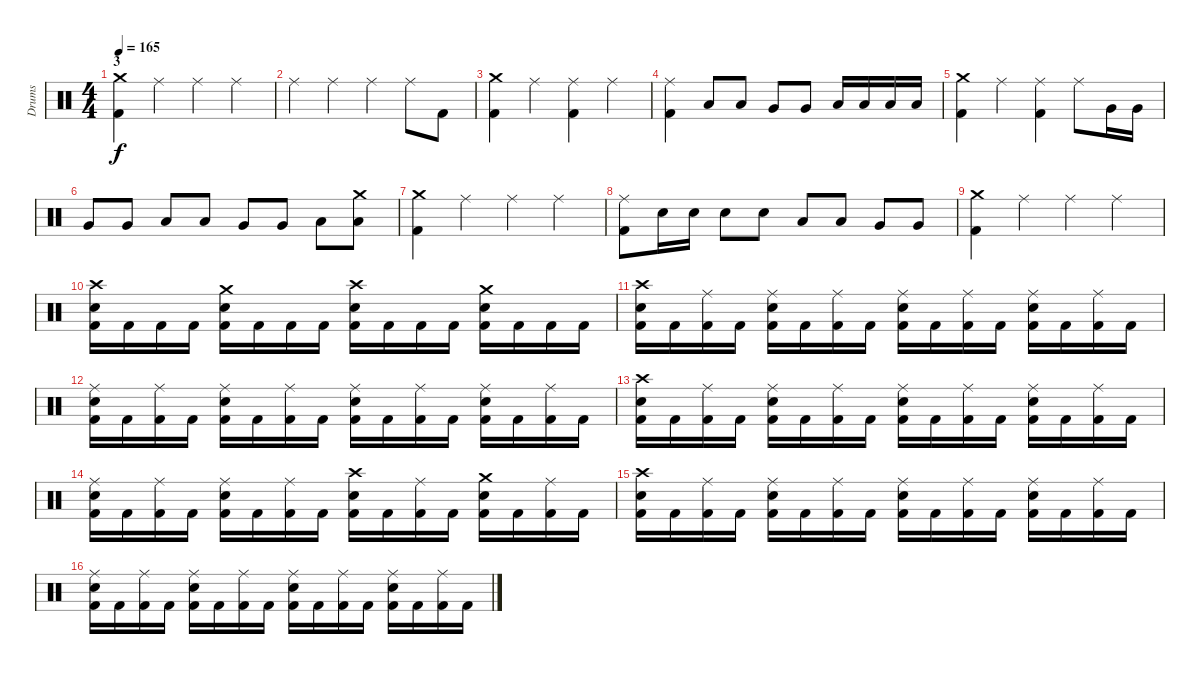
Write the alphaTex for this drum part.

\track ("Drums" "Drums") {instrument percussion}
\staff {score}
\articulation defaults
\ts (4 4)
\section ("" "3")
\tempo 165
\clef neutral
\ks c
("Crash medium (hit)" "Kick (hit) 2").4{dy f} "Ride (middle)".4 "Ride (middle)".4 "Ride (middle)".4 |
"Ride (middle)".4 "Ride (middle)".4 "Ride (middle)".4 "Ride (middle)".8 "Kick (hit) 2".8 |
("Crash medium (hit)" "Kick (hit) 2").4 "Ride (middle)".4 ("Ride (middle)" "Kick (hit) 2").4 "Ride (middle)".4 |
("Ride (middle)" "Kick (hit) 2").4 "Low Tom (hit)".8 "Low Tom (hit)".8 "Very Low Tom (hit)".8 "Very Low Tom (hit)".8 "Low Floor Tom (hit)".16 "Low Floor Tom (hit)".16 "Low Floor Tom (hit)".16 "Low Floor Tom (hit)".16 |
("Crash medium (hit)" "Kick (hit) 2").4 "Ride (middle)".4 ("Ride (middle)" "Kick (hit) 2").4 "Ride (middle)".8 "Very Low Tom (hit)".16 "Very Low Tom (hit)".16 |
"Very Low Tom (hit)".8 "Very Low Tom (hit)".8 "Low Tom (hit)".8 "Low Tom (hit)".8 "Very Low Tom (hit)".8 "Very Low Tom (hit)".8 "Low Floor Tom (hit)".8 ("Crash medium (hit)" "Low Floor Tom (hit)").8 |
("Crash medium (hit)" "Kick (hit) 2").4 "Ride (middle)".4 "Ride (middle)".4 "Ride (middle)".4 |
("Ride (middle)" "Kick (hit) 2").8 "Electric Snare (hit)".16 "Electric Snare (hit)".16 "Electric Snare (hit)".8 "Electric Snare (hit)".8 "Low Tom (hit)".8 "Low Tom (hit)".8 "Very Low Tom (hit)".8 "Very Low Tom (hit)".8 |
("Crash medium (hit)" "Kick (hit) 2").4 "Ride (middle)".4 "Ride (middle)".4 "Ride (middle)".4 |
("Crash high (hit)" "Electric Snare (hit)" "Kick (hit) 2").16 "Kick (hit) 2".16 "Kick (hit) 2".16 "Kick (hit) 2".16 ("Crash medium (hit)" "Electric Snare (hit)" "Kick (hit) 2").16 "Kick (hit) 2".16 "Kick (hit) 2".16 "Kick (hit) 2".16 ("Crash high (hit)" "Electric Snare (hit)" "Kick (hit) 2").16 "Kick (hit) 2".16 "Kick (hit) 2".16 "Kick (hit) 2".16 ("Crash medium (hit)" "Electric Snare (hit)" "Kick (hit) 2").16 "Kick (hit) 2".16 "Kick (hit) 2".16 "Kick (hit) 2".16 |
("Crash high (hit)" "Electric Snare (hit)" "Kick (hit) 2").16 "Kick (hit) 2".16 ("Ride (middle)" "Kick (hit) 2").16 "Kick (hit) 2".16 ("Ride (middle)" "Electric Snare (hit)" "Kick (hit) 2").16 "Kick (hit) 2".16 ("Ride (middle)" "Kick (hit) 2").16 "Kick (hit) 2".16 ("Ride (middle)" "Electric Snare (hit)" "Kick (hit) 2").16 "Kick (hit) 2".16 ("Ride (middle)" "Kick (hit) 2").16 "Kick (hit) 2".16 ("Ride (middle)" "Electric Snare (hit)" "Kick (hit) 2").16 "Kick (hit) 2".16 ("Ride (middle)" "Kick (hit) 2").16 "Kick (hit) 2".16 |
("Ride (middle)" "Electric Snare (hit)" "Kick (hit) 2").16 "Kick (hit) 2".16 ("Ride (middle)" "Kick (hit) 2").16 "Kick (hit) 2".16 ("Ride (middle)" "Electric Snare (hit)" "Kick (hit) 2").16 "Kick (hit) 2".16 ("Ride (middle)" "Kick (hit) 2").16 "Kick (hit) 2".16 ("Ride (middle)" "Electric Snare (hit)" "Kick (hit) 2").16 "Kick (hit) 2".16 ("Ride (middle)" "Kick (hit) 2").16 "Kick (hit) 2".16 ("Ride (middle)" "Electric Snare (hit)" "Kick (hit) 2").16 "Kick (hit) 2".16 ("Ride (middle)" "Kick (hit) 2").16 "Kick (hit) 2".16 |
("Crash high (hit)" "Electric Snare (hit)" "Kick (hit) 2").16 "Kick (hit) 2".16 ("Ride (middle)" "Kick (hit) 2").16 "Kick (hit) 2".16 ("Ride (middle)" "Electric Snare (hit)" "Kick (hit) 2").16 "Kick (hit) 2".16 ("Ride (middle)" "Kick (hit) 2").16 "Kick (hit) 2".16 ("Ride (middle)" "Electric Snare (hit)" "Kick (hit) 2").16 "Kick (hit) 2".16 ("Ride (middle)" "Kick (hit) 2").16 "Kick (hit) 2".16 ("Ride (middle)" "Electric Snare (hit)" "Kick (hit) 2").16 "Kick (hit) 2".16 ("Ride (middle)" "Kick (hit) 2").16 "Kick (hit) 2".16 |
("Ride (middle)" "Electric Snare (hit)" "Kick (hit) 2").16 "Kick (hit) 2".16 ("Ride (middle)" "Kick (hit) 2").16 "Kick (hit) 2".16 ("Ride (middle)" "Electric Snare (hit)" "Kick (hit) 2").16 "Kick (hit) 2".16 ("Ride (middle)" "Kick (hit) 2").16 "Kick (hit) 2".16 ("Crash high (hit)" "Electric Snare (hit)" "Kick (hit) 2").16 "Kick (hit) 2".16 ("Ride (middle)" "Kick (hit) 2").16 "Kick (hit) 2".16 ("Crash medium (hit)" "Electric Snare (hit)" "Kick (hit) 2").16 "Kick (hit) 2".16 ("Ride (middle)" "Kick (hit) 2").16 "Kick (hit) 2".16 |
("Crash high (hit)" "Electric Snare (hit)" "Kick (hit) 2").16 "Kick (hit) 2".16 ("Ride (middle)" "Kick (hit) 2").16 "Kick (hit) 2".16 ("Ride (middle)" "Electric Snare (hit)" "Kick (hit) 2").16 "Kick (hit) 2".16 ("Ride (middle)" "Kick (hit) 2").16 "Kick (hit) 2".16 ("Ride (middle)" "Electric Snare (hit)" "Kick (hit) 2").16 "Kick (hit) 2".16 ("Ride (middle)" "Kick (hit) 2").16 "Kick (hit) 2".16 ("Ride (middle)" "Electric Snare (hit)" "Kick (hit) 2").16 "Kick (hit) 2".16 ("Ride (middle)" "Kick (hit) 2").16 "Kick (hit) 2".16 |
("Ride (middle)" "Electric Snare (hit)" "Kick (hit) 2").16 "Kick (hit) 2".16 ("Ride (middle)" "Kick (hit) 2").16 "Kick (hit) 2".16 ("Ride (middle)" "Electric Snare (hit)" "Kick (hit) 2").16 "Kick (hit) 2".16 ("Ride (middle)" "Kick (hit) 2").16 "Kick (hit) 2".16 ("Ride (middle)" "Electric Snare (hit)" "Kick (hit) 2").16 "Kick (hit) 2".16 ("Ride (middle)" "Kick (hit) 2").16 "Kick (hit) 2".16 ("Ride (middle)" "Electric Snare (hit)" "Kick (hit) 2").16 "Kick (hit) 2".16 ("Ride (middle)" "Kick (hit) 2").16 "Kick (hit) 2".16
